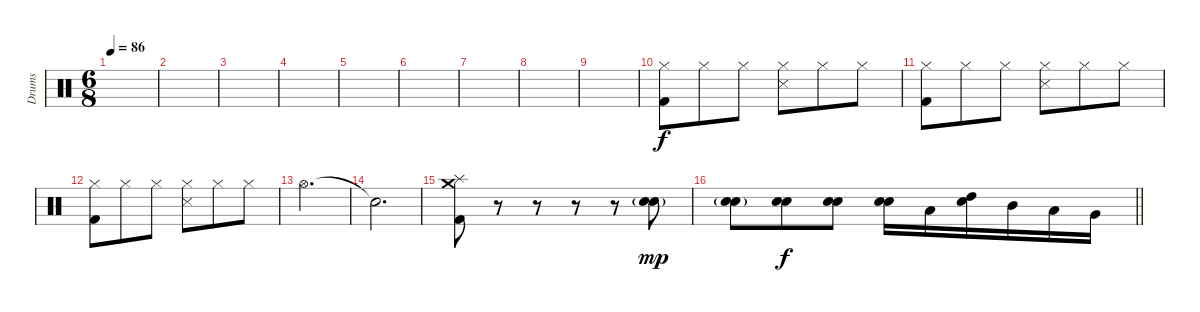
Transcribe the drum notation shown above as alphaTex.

\track ("Drums" "Drums") {instrument percussion}
\staff {score}
\articulation defaults
\ts (6 8)
\tempo 86
\clef neutral
\ks c
|
|
|
|
|
|
|
|
|
("Hi-Hat (closed)" "Kick (hit) 2").8 "Hi-Hat (closed)".8 "Hi-Hat (closed)".8 ("Hi-Hat (closed)" "Snare (side stick) 3").8 "Hi-Hat (closed)".8 "Hi-Hat (closed)".8 |
("Hi-Hat (closed)" "Kick (hit) 2").8 "Hi-Hat (closed)".8 "Hi-Hat (closed)".8 ("Hi-Hat (closed)" "Snare (side stick) 3").8 "Hi-Hat (closed)".8 "Hi-Hat (closed)".8 |
("Hi-Hat (closed)" "Kick (hit) 2").8 "Hi-Hat (closed)".8 "Hi-Hat (closed)".8 ("Hi-Hat (closed)" "Snare (side stick) 3").8 "Hi-Hat (closed)".8 "Hi-Hat (closed)".8 |
"Hi-Hat (open)".2{d} |
"Snare (hit)"{t}.2{d} |
("Crash medium (hit)" "Splash (hit)" "Kick (hit) 2").8 r.8 r.8 r.8 r.8 ("Snare (hit) 2"{g} "Electric Snare (hit)"{g}).8{dy mp} |
\barLineRight lightlight
("Snare (hit) 2"{g} "Electric Snare (hit)"{g}).8 ("Snare (hit) 2" "Electric Snare (hit)").8{dy f} ("Snare (hit) 2" "Electric Snare (hit)").8 ("Snare (hit) 2" "Electric Snare (hit)").16 "Low Tom (hit)".16 ("High Tom (hit)" "Electric Snare (hit)").16 "Mid Tom (hit)".16 "Low Tom (hit)".16 "Very Low Tom (hit)".16
